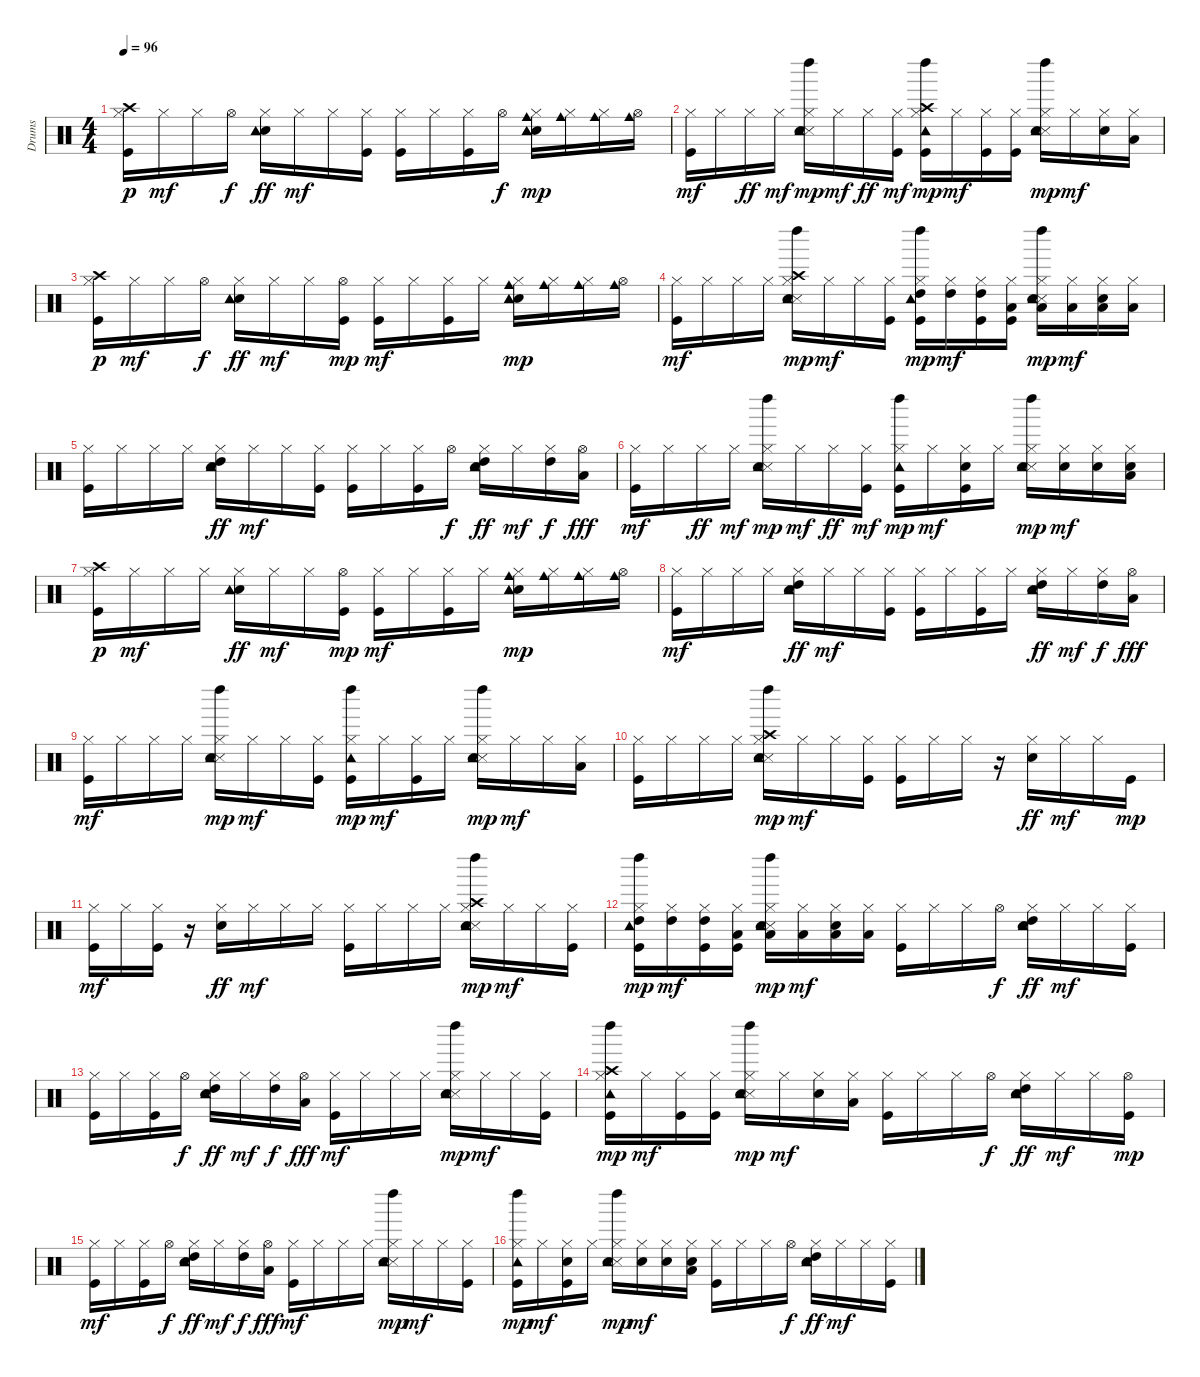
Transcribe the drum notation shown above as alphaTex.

\track ("Drums" "Drums") {instrument percussion}
\staff {score}
\articulation defaults
\ts (4 4)
\tempo 96
\clef neutral
\ks c
("Kick (hit)" "Hi-Hat (closed)" "Crash high (hit)").16{dy p} "Hi-Hat (closed)".16{dy mf} "Hi-Hat (closed)".16 "Hi-Hat (open)".16{dy f} ("Snare (hit) 2" "Hi-Hat (closed)" "Tambourine (hit)" "Tambourine (hit)").16{dy ff} "Hi-Hat (closed)".16{dy mf} "Hi-Hat (closed)".16 ("Kick (hit)" "Hi-Hat (closed)").16 ("Kick (hit)" "Hi-Hat (closed)").16 "Hi-Hat (closed)".16 ("Kick (hit)" "Hi-Hat (closed)").16 "Hi-Hat (open)".16{dy f} ("Snare (hit) 2" "Hi-Hat (closed)" "Tambourine (hit)" "Tambourine (hit)" "Cowbell medium (hit)").16{dy mp} ("Hi-Hat (closed)" "Cowbell medium (hit)").16 ("Hi-Hat (closed)" "Cowbell medium (hit)").16 ("Hi-Hat (open)" "Cowbell medium (hit)").16 |
("Kick (hit)" "Hi-Hat (closed)").16{dy mf} "Hi-Hat (closed)".16 "Hi-Hat (closed)".16{dy ff} "Hi-Hat (closed)".16{dy mf} ("Snare (side stick) 3" "Snare (hit) 2" "Hi-Hat (closed)" "Tambourine (hit)" "Left Maraca (hit)").16{dy mp} "Hi-Hat (closed)".16{dy mf} "Hi-Hat (closed)".16{dy ff} ("Kick (hit)" "Hi-Hat (closed)").16{dy mf} ("Kick (hit)" "Hi-Hat (closed)" "Crash high (hit)" "Tambourine (hit)" "Left Maraca (hit)").16{dy mp} "Hi-Hat (closed)".16{dy mf} ("Kick (hit)" "Hi-Hat (closed)").16 ("Kick (hit)" "Hi-Hat (closed)").16 ("Snare (side stick) 3" "Snare (hit) 2" "Hi-Hat (closed)" "Tambourine (hit)" "Left Maraca (hit)").16{dy mp} "Hi-Hat (closed)".16{dy mf} ("Snare (hit) 2" "Hi-Hat (closed)").16 ("Low Floor Tom (hit)" "Hi-Hat (closed)").16 |
("Kick (hit)" "Hi-Hat (closed)" "Crash high (hit)").16{dy p} "Hi-Hat (closed)".16{dy mf} "Hi-Hat (closed)".16 "Hi-Hat (open)".16{dy f} ("Snare (hit) 2" "Hi-Hat (closed)" "Tambourine (hit)" "Tambourine (hit)").16{dy ff} "Hi-Hat (closed)".16{dy mf} "Hi-Hat (closed)".16 ("Kick (hit)" "Hi-Hat (open)").16{dy mp} ("Kick (hit)" "Hi-Hat (closed)").16{dy mf} "Hi-Hat (closed)".16 ("Kick (hit)" "Hi-Hat (closed)").16 "Hi-Hat (closed)".16 ("Snare (hit) 2" "Hi-Hat (closed)" "Tambourine (hit)" "Tambourine (hit)" "Cowbell medium (hit)").16{dy mp} ("Hi-Hat (closed)" "Cowbell medium (hit)").16 ("Hi-Hat (closed)" "Cowbell medium (hit)").16 ("Hi-Hat (open)" "Cowbell medium (hit)").16 |
("Kick (hit)" "Hi-Hat (closed)").16{dy mf} "Hi-Hat (closed)".16 "Hi-Hat (closed)".16 "Hi-Hat (closed)".16 ("Snare (side stick) 3" "Snare (hit) 2" "Hi-Hat (closed)" "Crash high (hit)" "Tambourine (hit)" "Left Maraca (hit)").16{dy mp} "Hi-Hat (closed)".16{dy mf} "Hi-Hat (closed)".16 ("Kick (hit)" "Hi-Hat (closed)").16 ("Kick (hit)" "Hi-Hat (closed)" "High Tom (hit)" "Tambourine (hit)" "Left Maraca (hit)").16{dy mp} ("Hi-Hat (closed)" "High Tom (hit)").16{dy mf} ("Kick (hit)" "Hi-Hat (closed)" "High Tom (hit)").16 ("Kick (hit)" "Hi-Hat (closed)" "Low Tom (hit)").16 ("Snare (side stick) 3" "Snare (hit) 2" "Hi-Hat (closed)" "Low Tom (hit)" "Tambourine (hit)" "Left Maraca (hit)").16{dy mp} ("Hi-Hat (closed)" "Low Tom (hit)").16{dy mf} ("Snare (hit) 2" "Low Floor Tom (hit)" "Hi-Hat (closed)").16 ("Low Floor Tom (hit)" "Hi-Hat (closed)").16 |
("Kick (hit)" "Hi-Hat (closed)").16 "Hi-Hat (closed)".16 "Hi-Hat (closed)".16 "Hi-Hat (closed)".16 ("Snare (hit) 2" "Hi-Hat (closed)" "High Tom (hit)" "Tambourine (hit)" "Tambourine (hit)").16{dy ff} "Hi-Hat (closed)".16{dy mf} "Hi-Hat (closed)".16 ("Kick (hit)" "Hi-Hat (closed)").16 ("Kick (hit)" "Hi-Hat (closed)").16 "Hi-Hat (closed)".16 ("Kick (hit)" "Hi-Hat (closed)").16 "Hi-Hat (open)".16{dy f} ("Snare (hit) 2" "Hi-Hat (closed)" "High Tom (hit)" "Tambourine (hit)" "Tambourine (hit)").16{dy ff} "Hi-Hat (closed)".16{dy mf} ("Hi-Hat (closed)" "High Tom (hit)").16{dy f} ("Low Tom (hit)" "Hi-Hat (open)").16{dy fff} |
("Kick (hit)" "Hi-Hat (closed)").16{dy mf} "Hi-Hat (closed)".16 "Hi-Hat (closed)".16{dy ff} "Hi-Hat (closed)".16{dy mf} ("Snare (side stick) 3" "Snare (hit) 2" "Hi-Hat (closed)" "Tambourine (hit)" "Left Maraca (hit)").16{dy mp} "Hi-Hat (closed)".16{dy mf} "Hi-Hat (closed)".16{dy ff} ("Kick (hit)" "Hi-Hat (closed)").16{dy mf} ("Kick (hit)" "Hi-Hat (closed)" "Tambourine (hit)" "Left Maraca (hit)").16{dy mp} "Hi-Hat (closed)".16{dy mf} ("Kick (hit)" "Snare (hit) 2" "Hi-Hat (closed)").16 "Hi-Hat (closed)".16 ("Snare (side stick) 3" "Snare (hit) 2" "Hi-Hat (closed)" "Tambourine (hit)" "Left Maraca (hit)").16{dy mp} ("Snare (hit) 2" "Hi-Hat (closed)").16{dy mf} ("Snare (hit) 2" "Hi-Hat (closed)").16 ("Snare (hit) 2" "Low Floor Tom (hit)" "Hi-Hat (closed)").16 |
("Kick (hit)" "Hi-Hat (closed)" "Crash high (hit)").16{dy p} "Hi-Hat (closed)".16{dy mf} "Hi-Hat (closed)".16 "Hi-Hat (closed)".16 ("Snare (hit) 2" "Hi-Hat (closed)" "Tambourine (hit)" "Tambourine (hit)").16{dy ff} "Hi-Hat (closed)".16{dy mf} "Hi-Hat (closed)".16 ("Kick (hit)" "Hi-Hat (open)").16{dy mp} ("Kick (hit)" "Hi-Hat (closed)").16{dy mf} "Hi-Hat (closed)".16 ("Kick (hit)" "Hi-Hat (closed)").16 "Hi-Hat (closed)".16 ("Snare (hit) 2" "Hi-Hat (closed)" "Tambourine (hit)" "Tambourine (hit)" "Cowbell medium (hit)").16{dy mp} ("Hi-Hat (closed)" "Cowbell medium (hit)").16 ("Hi-Hat (closed)" "Cowbell medium (hit)").16 ("Hi-Hat (open)" "Cowbell medium (hit)").16 |
("Kick (hit)" "Hi-Hat (closed)").16{dy mf} "Hi-Hat (closed)".16 "Hi-Hat (closed)".16 "Hi-Hat (closed)".16 ("Snare (hit) 2" "Hi-Hat (closed)" "High Tom (hit)" "Tambourine (hit)" "Tambourine (hit)").16{dy ff} "Hi-Hat (closed)".16{dy mf} "Hi-Hat (closed)".16 ("Kick (hit)" "Hi-Hat (closed)").16 ("Kick (hit)" "Hi-Hat (closed)").16 "Hi-Hat (closed)".16 ("Kick (hit)" "Hi-Hat (closed)").16 "Hi-Hat (closed)".16 ("Snare (hit) 2" "Hi-Hat (closed)" "High Tom (hit)" "Tambourine (hit)" "Tambourine (hit)").16{dy ff} "Hi-Hat (closed)".16{dy mf} ("Hi-Hat (closed)" "High Tom (hit)").16{dy f} ("Low Tom (hit)" "Hi-Hat (open)").16{dy fff} |
("Kick (hit)" "Hi-Hat (closed)").16{dy mf} "Hi-Hat (closed)".16 "Hi-Hat (closed)".16 "Hi-Hat (closed)".16 ("Snare (side stick) 3" "Snare (hit) 2" "Hi-Hat (closed)" "Tambourine (hit)" "Left Maraca (hit)").16{dy mp} "Hi-Hat (closed)".16{dy mf} "Hi-Hat (closed)".16 ("Kick (hit)" "Hi-Hat (closed)").16 ("Kick (hit)" "Hi-Hat (closed)" "Tambourine (hit)" "Left Maraca (hit)").16{dy mp} "Hi-Hat (closed)".16{dy mf} ("Kick (hit)" "Hi-Hat (closed)").16 "Hi-Hat (closed)".16 ("Snare (side stick) 3" "Snare (hit) 2" "Hi-Hat (closed)" "Tambourine (hit)" "Left Maraca (hit)").16{dy mp} "Hi-Hat (closed)".16{dy mf} "Hi-Hat (closed)".16 ("Low Floor Tom (hit)" "Hi-Hat (closed)").16 |
("Kick (hit)" "Hi-Hat (closed)").16 "Hi-Hat (closed)".16 "Hi-Hat (closed)".16 "Hi-Hat (closed)".16 ("Snare (side stick) 3" "Snare (hit) 2" "Hi-Hat (closed)" "Crash high (hit)" "Tambourine (hit)" "Left Maraca (hit)").16{dy mp} "Hi-Hat (closed)".16{dy mf} "Hi-Hat (closed)".16 ("Kick (hit)" "Hi-Hat (closed)").16 ("Kick (hit)" "Hi-Hat (closed)").16 "Hi-Hat (closed)".16 "Hi-Hat (closed)".16 r.16 ("Snare (hit) 2" "Hi-Hat (closed)").16{dy ff} "Hi-Hat (closed)".16{dy mf} "Hi-Hat (closed)".16 "Kick (hit)".16{dy mp} |
("Kick (hit)" "Hi-Hat (closed)").16{dy mf} "Hi-Hat (closed)".16 ("Kick (hit)" "Hi-Hat (closed)").16 r.16 ("Snare (hit) 2" "Hi-Hat (closed)").16{dy ff} "Hi-Hat (closed)".16{dy mf} "Hi-Hat (closed)".16 "Hi-Hat (closed)".16 ("Kick (hit)" "Hi-Hat (closed)").16 "Hi-Hat (closed)".16 "Hi-Hat (closed)".16 "Hi-Hat (closed)".16 ("Snare (side stick) 3" "Snare (hit) 2" "Hi-Hat (closed)" "Crash high (hit)" "Tambourine (hit)" "Left Maraca (hit)").16{dy mp} "Hi-Hat (closed)".16{dy mf} "Hi-Hat (closed)".16 ("Kick (hit)" "Hi-Hat (closed)").16 |
("Kick (hit)" "Hi-Hat (closed)" "High Tom (hit)" "Tambourine (hit)" "Left Maraca (hit)").16{dy mp} ("Hi-Hat (closed)" "High Tom (hit)").16{dy mf} ("Kick (hit)" "Hi-Hat (closed)" "High Tom (hit)").16 ("Kick (hit)" "Hi-Hat (closed)" "Low Tom (hit)").16 ("Snare (side stick) 3" "Snare (hit) 2" "Hi-Hat (closed)" "Low Tom (hit)" "Tambourine (hit)" "Left Maraca (hit)").16{dy mp} ("Hi-Hat (closed)" "Low Tom (hit)").16{dy mf} ("Snare (hit) 2" "Low Floor Tom (hit)" "Hi-Hat (closed)").16 ("Low Floor Tom (hit)" "Hi-Hat (closed)").16 ("Kick (hit)" "Hi-Hat (closed)").16 "Hi-Hat (closed)".16 "Hi-Hat (closed)".16 "Hi-Hat (open)".16{dy f} ("Snare (hit) 2" "Hi-Hat (closed)" "High Tom (hit)" "Tambourine (hit)" "Tambourine (hit)").16{dy ff} "Hi-Hat (closed)".16{dy mf} "Hi-Hat (closed)".16 ("Kick (hit)" "Hi-Hat (closed)").16 |
("Kick (hit)" "Hi-Hat (closed)").16 "Hi-Hat (closed)".16 ("Kick (hit)" "Hi-Hat (closed)").16 "Hi-Hat (open)".16{dy f} ("Snare (hit) 2" "Hi-Hat (closed)" "High Tom (hit)" "Tambourine (hit)" "Tambourine (hit)").16{dy ff} "Hi-Hat (closed)".16{dy mf} ("Hi-Hat (closed)" "High Tom (hit)").16{dy f} ("Low Tom (hit)" "Hi-Hat (open)").16{dy fff} ("Kick (hit)" "Hi-Hat (closed)").16{dy mf} "Hi-Hat (closed)".16 "Hi-Hat (closed)".16 "Hi-Hat (closed)".16 ("Snare (side stick) 3" "Snare (hit) 2" "Hi-Hat (closed)" "Tambourine (hit)" "Left Maraca (hit)").16{dy mp} "Hi-Hat (closed)".16{dy mf} "Hi-Hat (closed)".16 ("Kick (hit)" "Hi-Hat (closed)").16 |
("Kick (hit)" "Hi-Hat (closed)" "Crash high (hit)" "Tambourine (hit)" "Left Maraca (hit)").16{dy mp} "Hi-Hat (closed)".16{dy mf} ("Kick (hit)" "Hi-Hat (closed)").16 ("Kick (hit)" "Hi-Hat (closed)").16 ("Snare (side stick) 3" "Snare (hit) 2" "Hi-Hat (closed)" "Tambourine (hit)" "Left Maraca (hit)").16{dy mp} "Hi-Hat (closed)".16{dy mf} ("Snare (hit) 2" "Hi-Hat (closed)").16 ("Low Floor Tom (hit)" "Hi-Hat (closed)").16 ("Kick (hit)" "Hi-Hat (closed)").16 "Hi-Hat (closed)".16 "Hi-Hat (closed)".16 "Hi-Hat (open)".16{dy f} ("Snare (hit) 2" "Hi-Hat (closed)" "High Tom (hit)" "Tambourine (hit)" "Tambourine (hit)").16{dy ff} "Hi-Hat (closed)".16{dy mf} "Hi-Hat (closed)".16 ("Kick (hit)" "Hi-Hat (open)").16{dy mp} |
("Kick (hit)" "Hi-Hat (closed)").16{dy mf} "Hi-Hat (closed)".16 ("Kick (hit)" "Hi-Hat (closed)").16 "Hi-Hat (open)".16{dy f} ("Snare (hit) 2" "Hi-Hat (closed)" "High Tom (hit)" "Tambourine (hit)" "Tambourine (hit)").16{dy ff} "Hi-Hat (closed)".16{dy mf} ("Hi-Hat (closed)" "High Tom (hit)").16{dy f} ("Low Tom (hit)" "Hi-Hat (open)").16{dy fff} ("Kick (hit)" "Hi-Hat (closed)").16{dy mf} "Hi-Hat (closed)".16 "Hi-Hat (closed)".16 "Hi-Hat (closed)".16 ("Snare (side stick) 3" "Snare (hit) 2" "Hi-Hat (closed)" "Tambourine (hit)" "Left Maraca (hit)").16{dy mp} "Hi-Hat (closed)".16{dy mf} "Hi-Hat (closed)".16 ("Kick (hit)" "Hi-Hat (closed)").16 |
("Kick (hit)" "Hi-Hat (closed)" "Tambourine (hit)" "Left Maraca (hit)").16{dy mp} "Hi-Hat (closed)".16{dy mf} ("Kick (hit)" "Snare (hit) 2" "Hi-Hat (closed)").16 "Hi-Hat (closed)".16 ("Snare (side stick) 3" "Snare (hit) 2" "Hi-Hat (closed)" "Tambourine (hit)" "Left Maraca (hit)").16{dy mp} ("Snare (hit) 2" "Hi-Hat (closed)").16{dy mf} ("Snare (hit) 2" "Hi-Hat (closed)").16 ("Snare (hit) 2" "Low Floor Tom (hit)" "Hi-Hat (closed)").16 ("Kick (hit)" "Hi-Hat (closed)").16 "Hi-Hat (closed)".16 "Hi-Hat (closed)".16 "Hi-Hat (open)".16{dy f} ("Snare (hit) 2" "Hi-Hat (closed)" "High Tom (hit)" "Tambourine (hit)" "Tambourine (hit)").16{dy ff} "Hi-Hat (closed)".16{dy mf} "Hi-Hat (closed)".16 ("Kick (hit)" "Hi-Hat (closed)").16
